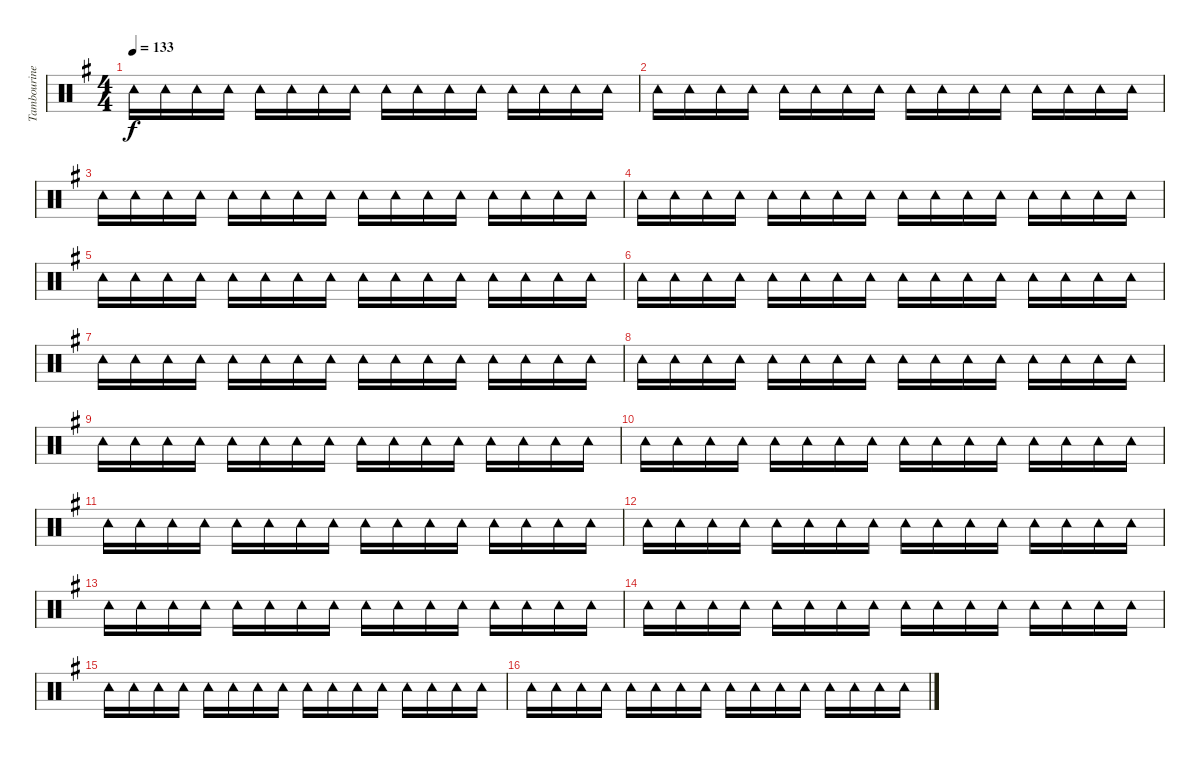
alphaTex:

\track ("Tambourine" "Tambourine") {instrument percussion}
\staff {score}
\articulation defaults
\ts (4 4)
\tempo 133
\clef neutral
\ks g "Tambourine (hit)".16{dy f} "Tambourine (hit)".16 "Tambourine (hit)".16 "Tambourine (hit)".16 "Tambourine (hit)".16 "Tambourine (hit)".16 "Tambourine (hit)".16 "Tambourine (hit)".16 "Tambourine (hit)".16 "Tambourine (hit)".16 "Tambourine (hit)".16 "Tambourine (hit)".16 "Tambourine (hit)".16 "Tambourine (hit)".16 "Tambourine (hit)".16 "Tambourine (hit)".16
|
"Tambourine (hit)".16 "Tambourine (hit)".16 "Tambourine (hit)".16 "Tambourine (hit)".16 "Tambourine (hit)".16 "Tambourine (hit)".16 "Tambourine (hit)".16 "Tambourine (hit)".16 "Tambourine (hit)".16 "Tambourine (hit)".16 "Tambourine (hit)".16 "Tambourine (hit)".16 "Tambourine (hit)".16 "Tambourine (hit)".16 "Tambourine (hit)".16 "Tambourine (hit)".16 |
"Tambourine (hit)".16 "Tambourine (hit)".16 "Tambourine (hit)".16 "Tambourine (hit)".16 "Tambourine (hit)".16 "Tambourine (hit)".16 "Tambourine (hit)".16 "Tambourine (hit)".16 "Tambourine (hit)".16 "Tambourine (hit)".16 "Tambourine (hit)".16 "Tambourine (hit)".16 "Tambourine (hit)".16 "Tambourine (hit)".16 "Tambourine (hit)".16 "Tambourine (hit)".16 |
"Tambourine (hit)".16 "Tambourine (hit)".16 "Tambourine (hit)".16 "Tambourine (hit)".16 "Tambourine (hit)".16 "Tambourine (hit)".16 "Tambourine (hit)".16 "Tambourine (hit)".16 "Tambourine (hit)".16 "Tambourine (hit)".16 "Tambourine (hit)".16 "Tambourine (hit)".16 "Tambourine (hit)".16 "Tambourine (hit)".16 "Tambourine (hit)".16 "Tambourine (hit)".16 |
"Tambourine (hit)".16 "Tambourine (hit)".16 "Tambourine (hit)".16 "Tambourine (hit)".16 "Tambourine (hit)".16 "Tambourine (hit)".16 "Tambourine (hit)".16 "Tambourine (hit)".16 "Tambourine (hit)".16 "Tambourine (hit)".16 "Tambourine (hit)".16 "Tambourine (hit)".16 "Tambourine (hit)".16 "Tambourine (hit)".16 "Tambourine (hit)".16 "Tambourine (hit)".16 |
"Tambourine (hit)".16 "Tambourine (hit)".16 "Tambourine (hit)".16 "Tambourine (hit)".16 "Tambourine (hit)".16 "Tambourine (hit)".16 "Tambourine (hit)".16 "Tambourine (hit)".16 "Tambourine (hit)".16 "Tambourine (hit)".16 "Tambourine (hit)".16 "Tambourine (hit)".16 "Tambourine (hit)".16 "Tambourine (hit)".16 "Tambourine (hit)".16 "Tambourine (hit)".16 |
"Tambourine (hit)".16 "Tambourine (hit)".16 "Tambourine (hit)".16 "Tambourine (hit)".16 "Tambourine (hit)".16 "Tambourine (hit)".16 "Tambourine (hit)".16 "Tambourine (hit)".16 "Tambourine (hit)".16 "Tambourine (hit)".16 "Tambourine (hit)".16 "Tambourine (hit)".16 "Tambourine (hit)".16 "Tambourine (hit)".16 "Tambourine (hit)".16 "Tambourine (hit)".16 |
"Tambourine (hit)".16 "Tambourine (hit)".16 "Tambourine (hit)".16 "Tambourine (hit)".16 "Tambourine (hit)".16 "Tambourine (hit)".16 "Tambourine (hit)".16 "Tambourine (hit)".16 "Tambourine (hit)".16 "Tambourine (hit)".16 "Tambourine (hit)".16 "Tambourine (hit)".16 "Tambourine (hit)".16 "Tambourine (hit)".16 "Tambourine (hit)".16 "Tambourine (hit)".16 |
"Tambourine (hit)".16 "Tambourine (hit)".16 "Tambourine (hit)".16 "Tambourine (hit)".16 "Tambourine (hit)".16 "Tambourine (hit)".16 "Tambourine (hit)".16 "Tambourine (hit)".16 "Tambourine (hit)".16 "Tambourine (hit)".16 "Tambourine (hit)".16 "Tambourine (hit)".16 "Tambourine (hit)".16 "Tambourine (hit)".16 "Tambourine (hit)".16 "Tambourine (hit)".16 |
"Tambourine (hit)".16 "Tambourine (hit)".16 "Tambourine (hit)".16 "Tambourine (hit)".16 "Tambourine (hit)".16 "Tambourine (hit)".16 "Tambourine (hit)".16 "Tambourine (hit)".16 "Tambourine (hit)".16 "Tambourine (hit)".16 "Tambourine (hit)".16 "Tambourine (hit)".16 "Tambourine (hit)".16 "Tambourine (hit)".16 "Tambourine (hit)".16 "Tambourine (hit)".16 |
"Tambourine (hit)".16 "Tambourine (hit)".16 "Tambourine (hit)".16 "Tambourine (hit)".16 "Tambourine (hit)".16 "Tambourine (hit)".16 "Tambourine (hit)".16 "Tambourine (hit)".16 "Tambourine (hit)".16 "Tambourine (hit)".16 "Tambourine (hit)".16 "Tambourine (hit)".16 "Tambourine (hit)".16 "Tambourine (hit)".16 "Tambourine (hit)".16 "Tambourine (hit)".16 |
"Tambourine (hit)".16 "Tambourine (hit)".16 "Tambourine (hit)".16 "Tambourine (hit)".16 "Tambourine (hit)".16 "Tambourine (hit)".16 "Tambourine (hit)".16 "Tambourine (hit)".16 "Tambourine (hit)".16 "Tambourine (hit)".16 "Tambourine (hit)".16 "Tambourine (hit)".16 "Tambourine (hit)".16 "Tambourine (hit)".16 "Tambourine (hit)".16 "Tambourine (hit)".16 |
"Tambourine (hit)".16 "Tambourine (hit)".16 "Tambourine (hit)".16 "Tambourine (hit)".16 "Tambourine (hit)".16 "Tambourine (hit)".16 "Tambourine (hit)".16 "Tambourine (hit)".16 "Tambourine (hit)".16 "Tambourine (hit)".16 "Tambourine (hit)".16 "Tambourine (hit)".16 "Tambourine (hit)".16 "Tambourine (hit)".16 "Tambourine (hit)".16 "Tambourine (hit)".16 |
"Tambourine (hit)".16 "Tambourine (hit)".16 "Tambourine (hit)".16 "Tambourine (hit)".16 "Tambourine (hit)".16 "Tambourine (hit)".16 "Tambourine (hit)".16 "Tambourine (hit)".16 "Tambourine (hit)".16 "Tambourine (hit)".16 "Tambourine (hit)".16 "Tambourine (hit)".16 "Tambourine (hit)".16 "Tambourine (hit)".16 "Tambourine (hit)".16 "Tambourine (hit)".16 |
"Tambourine (hit)".16 "Tambourine (hit)".16 "Tambourine (hit)".16 "Tambourine (hit)".16 "Tambourine (hit)".16 "Tambourine (hit)".16 "Tambourine (hit)".16 "Tambourine (hit)".16 "Tambourine (hit)".16 "Tambourine (hit)".16 "Tambourine (hit)".16 "Tambourine (hit)".16 "Tambourine (hit)".16 "Tambourine (hit)".16 "Tambourine (hit)".16 "Tambourine (hit)".16 |
"Tambourine (hit)".16 "Tambourine (hit)".16 "Tambourine (hit)".16 "Tambourine (hit)".16 "Tambourine (hit)".16 "Tambourine (hit)".16 "Tambourine (hit)".16 "Tambourine (hit)".16 "Tambourine (hit)".16 "Tambourine (hit)".16 "Tambourine (hit)".16 "Tambourine (hit)".16 "Tambourine (hit)".16 "Tambourine (hit)".16 "Tambourine (hit)".16 "Tambourine (hit)".16
